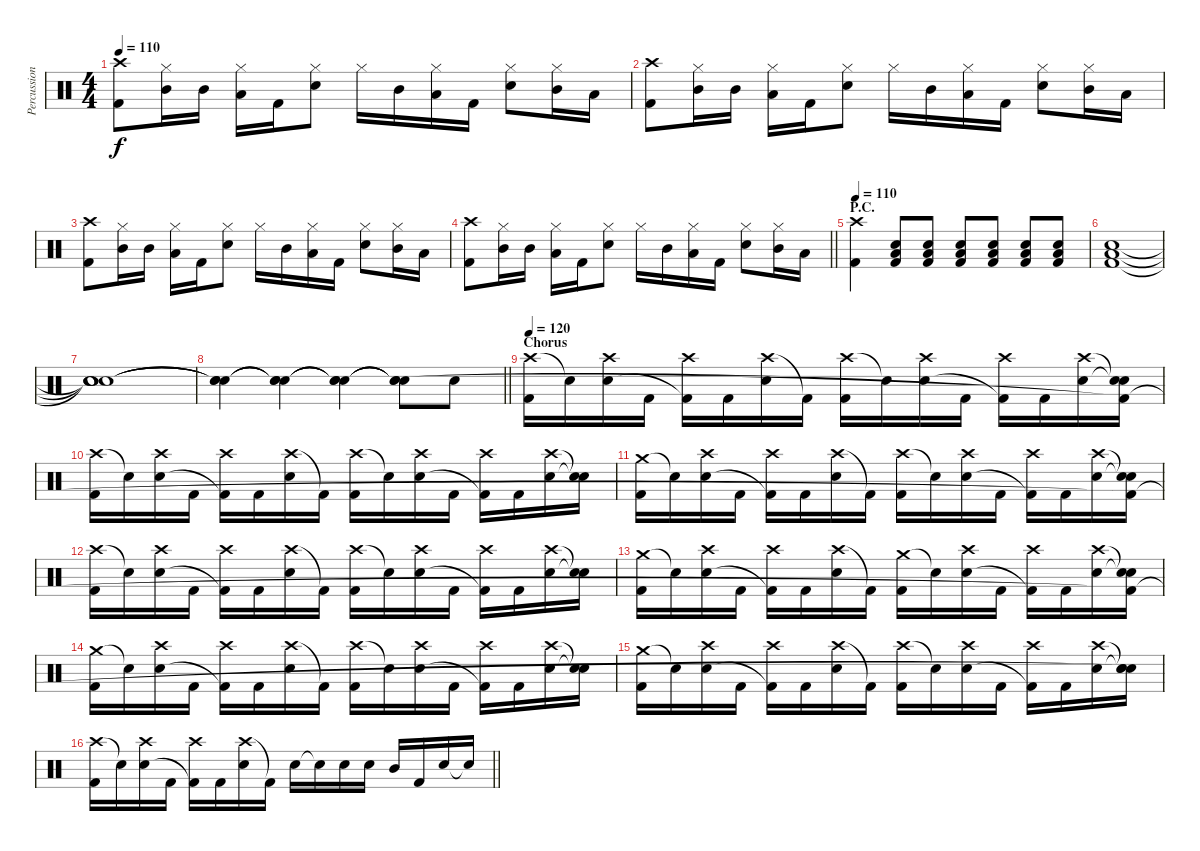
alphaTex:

\track ("Percussion" "Percussion") {instrument percussion}
\staff {score}
\articulation defaults
\ts (4 4)
\tempo 110
\clef neutral
\ks c
("Crash high (hit)" "Kick (hit) 2").8{dy f} ("Hi-Hat (closed)" "Mid Tom (hit)").16 "Mid Tom (hit)".16 ("Hi-Hat (closed)" "Low Tom (hit)").16 "Kick (hit) 2".16 ("Hi-Hat (closed)" "Electric Snare (hit)").8 "Hi-Hat (closed)".16 "Mid Tom (hit)".16 ("Hi-Hat (closed)" "Low Tom (hit)").16 "Kick (hit) 2".16 ("Hi-Hat (closed)" "Electric Snare (hit)").8 ("Hi-Hat (closed)" "Mid Tom (hit)").16 "Low Tom (hit)".16 |
("Crash high (hit)" "Kick (hit) 2").8 ("Hi-Hat (closed)" "Mid Tom (hit)").16 "Mid Tom (hit)".16 ("Hi-Hat (closed)" "Low Tom (hit)").16 "Kick (hit) 2".16 ("Hi-Hat (closed)" "Electric Snare (hit)").8 "Hi-Hat (closed)".16 "Mid Tom (hit)".16 ("Hi-Hat (closed)" "Low Tom (hit)").16 "Kick (hit) 2".16 ("Hi-Hat (closed)" "Electric Snare (hit)").8 ("Hi-Hat (closed)" "Mid Tom (hit)").16 "Low Tom (hit)".16 |
("Crash high (hit)" "Kick (hit) 2").8 ("Hi-Hat (closed)" "Mid Tom (hit)").16 "Mid Tom (hit)".16 ("Hi-Hat (closed)" "Low Tom (hit)").16 "Kick (hit) 2".16 ("Hi-Hat (closed)" "Electric Snare (hit)").8 "Hi-Hat (closed)".16 "Mid Tom (hit)".16 ("Hi-Hat (closed)" "Low Tom (hit)").16 "Kick (hit) 2".16 ("Hi-Hat (closed)" "Electric Snare (hit)").8 ("Hi-Hat (closed)" "Mid Tom (hit)").16 "Low Tom (hit)".16 |
\barLineRight lightlight
("Crash high (hit)" "Kick (hit) 2").8 ("Hi-Hat (closed)" "Mid Tom (hit)").16 "Mid Tom (hit)".16 ("Hi-Hat (closed)" "Low Tom (hit)").16 "Kick (hit) 2".16 ("Hi-Hat (closed)" "Electric Snare (hit)").8 "Hi-Hat (closed)".16 "Mid Tom (hit)".16 ("Hi-Hat (closed)" "Low Tom (hit)").16 "Kick (hit) 2".16 ("Hi-Hat (closed)" "Electric Snare (hit)").8 ("Hi-Hat (closed)" "Mid Tom (hit)").16 "Low Tom (hit)".16 |
\section ("" "P.C.")
\tempo 110
("Crash high (hit)" "Kick (hit) 2").4 ("Electric Snare (hit)" "Low Tom (hit)" "Kick (hit) 2").8 ("Electric Snare (hit)" "Low Tom (hit)" "Kick (hit) 2").8 ("Electric Snare (hit)" "Low Tom (hit)" "Kick (hit) 2").8 ("Electric Snare (hit)" "Low Tom (hit)" "Kick (hit) 2").8 ("Electric Snare (hit)" "Low Tom (hit)" "Kick (hit) 2").8 ("Electric Snare (hit)" "Low Tom (hit)" "Kick (hit) 2").8 |
("Electric Snare (hit)" "Low Tom (hit)" "Kick (hit) 2").1 |
("Snare (hit)"{t} "Snare (hit)"{t} "Snare (hit)"{t} "Snare (hit)").1 |
\barLineRight lightlight
("Snare (hit)"{t} "Snare (hit)"{t} "Snare (hit)"{t}).4 ("Snare (hit)"{t} "Snare (hit)"{t} "Snare (hit)"{t}).4 ("Snare (hit)"{t} "Snare (hit)"{t} "Snare (hit)"{t}).4 ("Snare (hit)"{t} "Snare (hit)"{t} "Snare (hit)"{t}).8 "Electric Snare (hit)".8 |
\section ("" "Chorus")
\tempo 120
("Crash high (hit)" "Kick (hit) 2").16 "Snare (hit)"{t}.16 ("Crash high (hit)" "Electric Snare (hit)").16 "Kick (hit) 2".16 ("Crash high (hit)" "Kick (hit) 2"{t}).16 "Kick (hit) 2".16 ("Crash high (hit)" "Electric Snare (hit)").16 "Kick (hit) 2"{t}.16 ("Crash high (hit)" "Kick (hit) 2").16 "Snare (hit)"{t}.16 ("Crash high (hit)" "Electric Snare (hit)").16 "Kick (hit) 2".16 ("Crash high (hit)" "Kick (hit) 2"{t}).16 "Kick (hit) 2".16 ("Crash high (hit)" "Electric Snare (hit)").16 ("Snare (hit)"{t} "Snare (hit)"{t} "Kick (hit) 2"{t}).16 |
("Crash high (hit)" "Kick (hit) 2").16 "Snare (hit)"{t}.16 ("Crash high (hit)" "Electric Snare (hit)").16 "Kick (hit) 2".16 ("Crash high (hit)" "Kick (hit) 2"{t}).16 "Kick (hit) 2".16 ("Crash high (hit)" "Electric Snare (hit)").16 "Kick (hit) 2"{t}.16 ("Crash high (hit)" "Kick (hit) 2").16 "Snare (hit)"{t}.16 ("Crash high (hit)" "Electric Snare (hit)").16 "Kick (hit) 2".16 ("Crash high (hit)" "Kick (hit) 2"{t}).16 "Kick (hit) 2".16 ("Crash high (hit)" "Electric Snare (hit)").16 ("Snare (hit)"{t} "Snare (hit)"{t}).16 |
("Crash medium (hit)" "Kick (hit) 2").16 "Snare (hit)"{t}.16 ("Crash high (hit)" "Electric Snare (hit)").16 "Kick (hit) 2".16 ("Crash high (hit)" "Kick (hit) 2"{t}).16 "Kick (hit) 2".16 ("Crash high (hit)" "Electric Snare (hit)").16 "Kick (hit) 2"{t}.16 ("Crash high (hit)" "Kick (hit) 2").16 "Snare (hit)"{t}.16 ("Crash high (hit)" "Electric Snare (hit)").16 "Kick (hit) 2".16 ("Crash high (hit)" "Kick (hit) 2"{t}).16 "Kick (hit) 2".16 ("Crash high (hit)" "Electric Snare (hit)").16 ("Snare (hit)"{t} "Snare (hit)"{t} "Kick (hit) 2"{t}).16 |
("Crash high (hit)" "Kick (hit) 2").16 "Snare (hit)"{t}.16 ("Crash high (hit)" "Electric Snare (hit)").16 "Kick (hit) 2".16 ("Crash high (hit)" "Kick (hit) 2"{t}).16 "Kick (hit) 2".16 ("Crash high (hit)" "Electric Snare (hit)").16 "Kick (hit) 2"{t}.16 ("Crash high (hit)" "Kick (hit) 2").16 "Snare (hit)"{t}.16 ("Crash high (hit)" "Electric Snare (hit)").16 "Kick (hit) 2".16 ("Crash high (hit)" "Kick (hit) 2"{t}).16 "Kick (hit) 2".16 ("Crash high (hit)" "Electric Snare (hit)").16 ("Snare (hit)"{t} "Snare (hit)"{t}).16 |
("Crash medium (hit)" "Kick (hit) 2").16 "Snare (hit)"{t}.16 ("Crash high (hit)" "Electric Snare (hit)").16 "Kick (hit) 2".16 ("Crash high (hit)" "Kick (hit) 2"{t}).16 "Kick (hit) 2".16 ("Crash high (hit)" "Electric Snare (hit)").16 "Kick (hit) 2"{t}.16 ("Crash medium (hit)" "Kick (hit) 2").16 "Snare (hit)"{t}.16 ("Crash high (hit)" "Electric Snare (hit)").16 "Kick (hit) 2".16 ("Crash high (hit)" "Kick (hit) 2"{t}).16 "Kick (hit) 2".16 ("Crash high (hit)" "Electric Snare (hit)").16 ("Snare (hit)"{t} "Snare (hit)"{t} "Kick (hit) 2"{t}).16 |
("Crash medium (hit)" "Kick (hit) 2").16 "Snare (hit)"{t}.16 ("Crash high (hit)" "Electric Snare (hit)").16 "Kick (hit) 2".16 ("Crash high (hit)" "Kick (hit) 2"{t}).16 "Kick (hit) 2".16 ("Crash high (hit)" "Electric Snare (hit)").16 "Kick (hit) 2"{t}.16 ("Crash high (hit)" "Kick (hit) 2").16 "Snare (hit)"{t}.16 ("Crash high (hit)" "Electric Snare (hit)").16 "Kick (hit) 2".16 ("Crash high (hit)" "Kick (hit) 2"{t}).16 "Kick (hit) 2".16 ("Crash high (hit)" "Electric Snare (hit)").16 ("Snare (hit)"{t} "Snare (hit)"{t}).16 |
("Crash medium (hit)" "Kick (hit) 2").16 "Snare (hit)"{t}.16 ("Crash high (hit)" "Electric Snare (hit)").16 "Kick (hit) 2".16 ("Crash high (hit)" "Kick (hit) 2"{t}).16 "Kick (hit) 2".16 ("Crash high (hit)" "Electric Snare (hit)").16 "Kick (hit) 2"{t}.16 ("Crash high (hit)" "Kick (hit) 2").16 "Snare (hit)"{t}.16 ("Crash high (hit)" "Electric Snare (hit)").16 "Kick (hit) 2".16 ("Crash high (hit)" "Kick (hit) 2"{t}).16 "Kick (hit) 2".16 ("Crash high (hit)" "Electric Snare (hit)").16 ("Snare (hit)"{t} "Snare (hit)"{t} "Snare (hit)"{t}).16 |
\barLineRight lightlight
("Crash high (hit)" "Kick (hit) 2").16 "Snare (hit)"{t}.16 ("Crash high (hit)" "Electric Snare (hit)").16 "Kick (hit) 2".16 ("Crash high (hit)" "Kick (hit) 2"{t}).16 "Kick (hit) 2".16 ("Crash high (hit)" "Electric Snare (hit)").16 "Kick (hit) 2"{t}.16 "Electric Snare (hit)".16 "Snare (hit)"{t}.16 "Electric Snare (hit)".16 "Electric Snare (hit)".16 "Mid Tom (hit)".16 "Kick (hit) 2".16 "Electric Snare (hit)".16 "Snare (hit)"{t}.16
